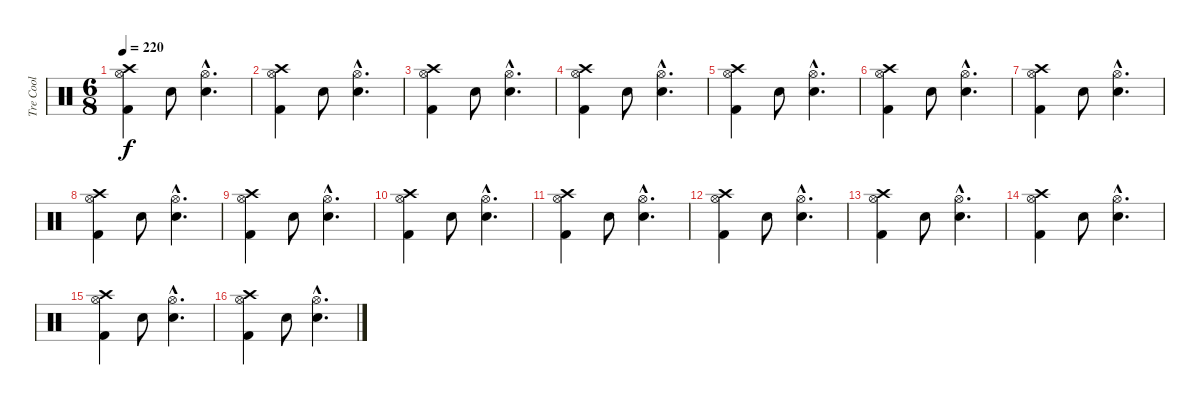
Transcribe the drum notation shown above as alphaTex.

\track ("Tre Cool" "Tre Cool") {instrument percussion}
\staff {score}
\articulation defaults
\ts (6 8)
\tempo 220
\clef neutral
\ks c
("Hi-Hat (open)" "Crash high (hit)" "Kick (hit) 2").4{dy f} "Snare (hit) 2".8 ("Electric Snare (hit)"{hac} "Hi-Hat (open)"{hac}).4{d} |
("Hi-Hat (open)" "Crash high (hit)" "Kick (hit) 2").4 "Snare (hit) 2".8 ("Electric Snare (hit)"{hac} "Hi-Hat (open)"{hac}).4{d} |
("Hi-Hat (open)" "Crash high (hit)" "Kick (hit) 2").4 "Snare (hit) 2".8 ("Electric Snare (hit)"{hac} "Hi-Hat (open)"{hac}).4{d} |
("Hi-Hat (open)" "Crash high (hit)" "Kick (hit) 2").4 "Snare (hit) 2".8 ("Electric Snare (hit)"{hac} "Hi-Hat (open)"{hac}).4{d} |
("Hi-Hat (open)" "Crash high (hit)" "Kick (hit) 2").4 "Snare (hit) 2".8 ("Electric Snare (hit)"{hac} "Hi-Hat (open)"{hac}).4{d} |
("Hi-Hat (open)" "Crash high (hit)" "Kick (hit) 2").4 "Snare (hit) 2".8 ("Electric Snare (hit)"{hac} "Hi-Hat (open)"{hac}).4{d} |
("Hi-Hat (open)" "Crash high (hit)" "Kick (hit) 2").4 "Snare (hit) 2".8 ("Electric Snare (hit)"{hac} "Hi-Hat (open)"{hac}).4{d} |
("Hi-Hat (open)" "Crash high (hit)" "Kick (hit) 2").4 "Snare (hit) 2".8 ("Electric Snare (hit)"{hac} "Hi-Hat (open)"{hac}).4{d} |
("Hi-Hat (open)" "Crash high (hit)" "Kick (hit) 2").4 "Snare (hit) 2".8 ("Electric Snare (hit)"{hac} "Hi-Hat (open)"{hac}).4{d} |
("Hi-Hat (open)" "Crash high (hit)" "Kick (hit) 2").4 "Snare (hit) 2".8 ("Electric Snare (hit)"{hac} "Hi-Hat (open)"{hac}).4{d} |
("Hi-Hat (open)" "Crash high (hit)" "Kick (hit) 2").4 "Snare (hit) 2".8 ("Electric Snare (hit)"{hac} "Hi-Hat (open)"{hac}).4{d} |
("Hi-Hat (open)" "Crash high (hit)" "Kick (hit) 2").4 "Snare (hit) 2".8 ("Electric Snare (hit)"{hac} "Hi-Hat (open)"{hac}).4{d} |
("Hi-Hat (open)" "Crash high (hit)" "Kick (hit) 2").4 "Snare (hit) 2".8 ("Electric Snare (hit)"{hac} "Hi-Hat (open)"{hac}).4{d} |
("Hi-Hat (open)" "Crash high (hit)" "Kick (hit) 2").4 "Snare (hit) 2".8 ("Electric Snare (hit)"{hac} "Hi-Hat (open)"{hac}).4{d} |
("Hi-Hat (open)" "Crash high (hit)" "Kick (hit) 2").4 "Snare (hit) 2".8 ("Electric Snare (hit)"{hac} "Hi-Hat (open)"{hac}).4{d} |
("Hi-Hat (open)" "Crash high (hit)" "Kick (hit) 2").4 "Snare (hit) 2".8 ("Electric Snare (hit)"{hac} "Hi-Hat (open)"{hac}).4{d}
